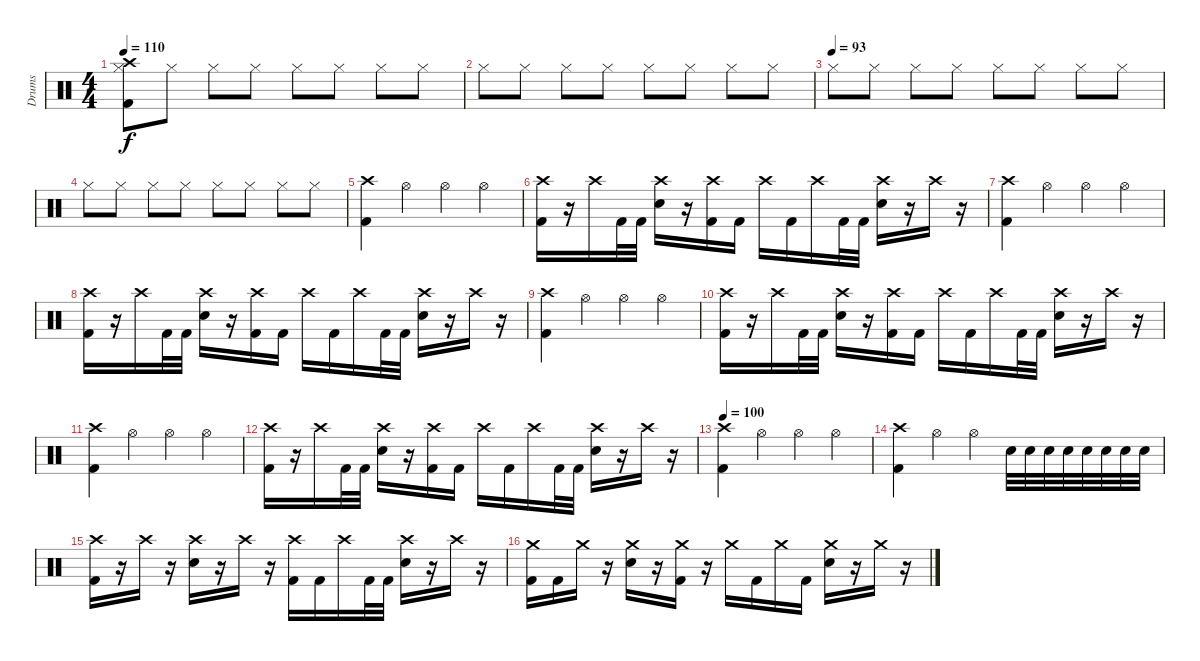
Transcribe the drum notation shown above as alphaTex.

\track ("Drums" "Drums") {instrument percussion}
\staff {score}
\articulation defaults
\ts (4 4)
\tempo 110
\clef neutral
\ks c
("Hi-Hat (closed)" "Crash high (hit)" "Kick (hit) 2").8{dy f} "Hi-Hat (closed)".8 "Hi-Hat (closed)".8 "Hi-Hat (closed)".8 "Hi-Hat (closed)".8 "Hi-Hat (closed)".8 "Hi-Hat (closed)".8 "Hi-Hat (closed)".8 |
"Hi-Hat (closed)".8 "Hi-Hat (closed)".8 "Hi-Hat (closed)".8 "Hi-Hat (closed)".8 "Hi-Hat (closed)".8 "Hi-Hat (closed)".8 "Hi-Hat (closed)".8 "Hi-Hat (closed)".8 |
\tempo (93)
"Hi-Hat (closed)".8 "Hi-Hat (closed)".8 "Hi-Hat (closed)".8 "Hi-Hat (closed)".8 "Hi-Hat (closed)".8 "Hi-Hat (closed)".8 "Hi-Hat (closed)".8 "Hi-Hat (closed)".8 |
"Hi-Hat (closed)".8 "Hi-Hat (closed)".8 "Hi-Hat (closed)".8 "Hi-Hat (closed)".8 "Hi-Hat (closed)".8 "Hi-Hat (closed)".8 "Hi-Hat (closed)".8 "Hi-Hat (closed)".8 |
("Crash high (hit)" "Kick (hit) 2").4 "Hi-Hat (open)".4 "Hi-Hat (open)".4 "Hi-Hat (open)".4 |
("Crash high (hit)" "Kick (hit) 2").16 r.16 "Crash high (hit)".16 "Kick (hit) 2".32 "Kick (hit) 2".32 ("Crash high (hit)" "Snare (hit) 2").16 r.16 ("Crash high (hit)" "Kick (hit) 2").16 "Kick (hit) 2".16 "Crash high (hit)".16 "Kick (hit) 2".16 "Crash high (hit)".16 "Kick (hit) 2".32 "Kick (hit) 2".32 ("Crash high (hit)" "Snare (hit) 2").16 r.16 "Crash high (hit)".16 r.16 |
("Crash high (hit)" "Kick (hit) 2").4 "Hi-Hat (open)".4 "Hi-Hat (open)".4 "Hi-Hat (open)".4 |
("Crash high (hit)" "Kick (hit) 2").16 r.16 "Crash high (hit)".16 "Kick (hit) 2".32 "Kick (hit) 2".32 ("Crash high (hit)" "Snare (hit) 2").16 r.16 ("Crash high (hit)" "Kick (hit) 2").16 "Kick (hit) 2".16 "Crash high (hit)".16 "Kick (hit) 2".16 "Crash high (hit)".16 "Kick (hit) 2".32 "Kick (hit) 2".32 ("Crash high (hit)" "Snare (hit) 2").16 r.16 "Crash high (hit)".16 r.16 |
("Crash high (hit)" "Kick (hit) 2").4 "Hi-Hat (open)".4 "Hi-Hat (open)".4 "Hi-Hat (open)".4 |
("Crash high (hit)" "Kick (hit) 2").16 r.16 "Crash high (hit)".16 "Kick (hit) 2".32 "Kick (hit) 2".32 ("Crash high (hit)" "Snare (hit) 2").16 r.16 ("Crash high (hit)" "Kick (hit) 2").16 "Kick (hit) 2".16 "Crash high (hit)".16 "Kick (hit) 2".16 "Crash high (hit)".16 "Kick (hit) 2".32 "Kick (hit) 2".32 ("Crash high (hit)" "Snare (hit) 2").16 r.16 "Crash high (hit)".16 r.16 |
("Crash high (hit)" "Kick (hit) 2").4 "Hi-Hat (open)".4 "Hi-Hat (open)".4 "Hi-Hat (open)".4 |
("Crash high (hit)" "Kick (hit) 2").16 r.16 "Crash high (hit)".16 "Kick (hit) 2".32 "Kick (hit) 2".32 ("Crash high (hit)" "Snare (hit) 2").16 r.16 ("Crash high (hit)" "Kick (hit) 2").16 "Kick (hit) 2".16 "Crash high (hit)".16 "Kick (hit) 2".16 "Crash high (hit)".16 "Kick (hit) 2".32 "Kick (hit) 2".32 ("Crash high (hit)" "Snare (hit) 2").16 r.16 "Crash high (hit)".16 r.16 |
\tempo 100
("Kick (hit) 2" "Crash high (hit)").4 "Hi-Hat (open)".4 "Hi-Hat (open)".4 "Hi-Hat (open)".4 |
("Crash high (hit)" "Kick (hit) 2").4 "Hi-Hat (open)".4 "Hi-Hat (open)".4 "Snare (hit) 2".32 "Snare (hit) 2".32 "Snare (hit) 2".32 "Snare (hit) 2".32 "Snare (hit) 2".32 "Snare (hit) 2".32 "Snare (hit) 2".32 "Snare (hit) 2".32 |
("Crash high (hit)" "Kick (hit) 2").16 r.16 "Crash high (hit)".16 r.16 ("Crash high (hit)" "Snare (hit) 2").16 r.16 "Crash high (hit)".16 r.16 ("Crash high (hit)" "Kick (hit) 2").16 "Kick (hit) 2".16 "Crash high (hit)".16 "Kick (hit) 2".32 "Kick (hit) 2".32 ("Crash high (hit)" "Snare (hit) 2").16 r.16 "Crash high (hit)".16 r.16 |
("Crash medium (hit)" "Kick (hit) 2").16 "Kick (hit) 2".16 "Crash medium (hit)".16 r.16 ("Crash medium (hit)" "Snare (hit) 2").16 r.16 ("Crash medium (hit)" "Kick (hit) 2").16 r.16 "Crash medium (hit)".16 "Kick (hit) 2".16 "Crash medium (hit)".16 "Kick (hit) 2".16 ("Crash medium (hit)" "Snare (hit) 2").16 r.16 "Crash medium (hit)".16 r.16
